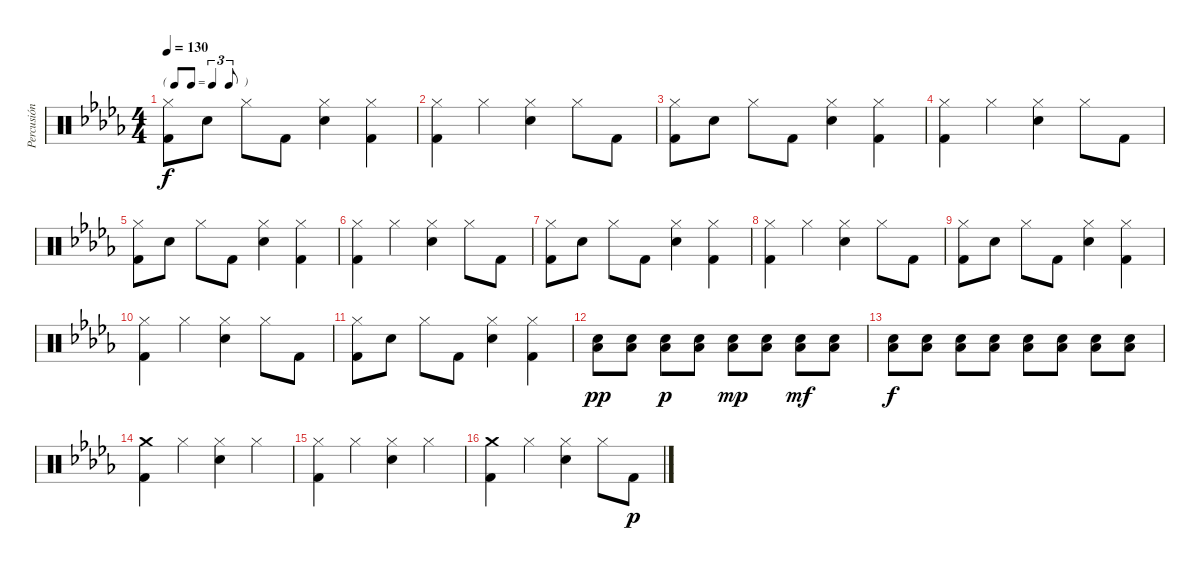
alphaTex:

\track ("Percusión" "Percusión") {instrument percussion}
\staff {score}
\articulation defaults
\ts (4 4)
\tf triplet8th
\tempo 130
\clef neutral
\ks db
("Hi-Hat (closed)" "Kick (hit) 2").8{dy f} "Snare (hit) 2".8 "Hi-Hat (closed)".8 "Kick (hit) 2".8 ("Hi-Hat (closed)" "Snare (hit) 2").4 ("Hi-Hat (closed)" "Kick (hit) 2").4 |
("Hi-Hat (closed)" "Kick (hit) 2").4 "Hi-Hat (closed)".4 ("Hi-Hat (closed)" "Snare (hit) 2").4 "Hi-Hat (closed)".8 "Kick (hit) 2".8 |
("Hi-Hat (closed)" "Kick (hit) 2").8 "Snare (hit) 2".8 "Hi-Hat (closed)".8 "Kick (hit) 2".8 ("Hi-Hat (closed)" "Snare (hit) 2").4 ("Hi-Hat (closed)" "Kick (hit) 2").4 |
("Hi-Hat (closed)" "Kick (hit) 2").4 "Hi-Hat (closed)".4 ("Hi-Hat (closed)" "Snare (hit) 2").4 "Hi-Hat (closed)".8 "Kick (hit) 2".8 |
("Hi-Hat (closed)" "Kick (hit) 2").8 "Snare (hit) 2".8 "Hi-Hat (closed)".8 "Kick (hit) 2".8 ("Hi-Hat (closed)" "Snare (hit) 2").4 ("Hi-Hat (closed)" "Kick (hit) 2").4 |
("Hi-Hat (closed)" "Kick (hit) 2").4 "Hi-Hat (closed)".4 ("Hi-Hat (closed)" "Snare (hit) 2").4 "Hi-Hat (closed)".8 "Kick (hit) 2".8 |
("Hi-Hat (closed)" "Kick (hit) 2").8 "Snare (hit) 2".8 "Hi-Hat (closed)".8 "Kick (hit) 2".8 ("Hi-Hat (closed)" "Snare (hit) 2").4 ("Hi-Hat (closed)" "Kick (hit) 2").4 |
("Hi-Hat (closed)" "Kick (hit) 2").4 "Hi-Hat (closed)".4 ("Hi-Hat (closed)" "Snare (hit) 2").4 "Hi-Hat (closed)".8 "Kick (hit) 2".8 |
("Hi-Hat (closed)" "Kick (hit) 2").8 "Snare (hit) 2".8 "Hi-Hat (closed)".8 "Kick (hit) 2".8 ("Hi-Hat (closed)" "Snare (hit) 2").4 ("Hi-Hat (closed)" "Kick (hit) 2").4 |
("Hi-Hat (closed)" "Kick (hit) 2").4 "Hi-Hat (closed)".4 ("Hi-Hat (closed)" "Snare (hit) 2").4 "Hi-Hat (closed)".8 "Kick (hit) 2".8 |
("Hi-Hat (closed)" "Kick (hit) 2").8 "Snare (hit) 2".8 "Hi-Hat (closed)".8 "Kick (hit) 2".8 ("Hi-Hat (closed)" "Snare (hit) 2").4 ("Hi-Hat (closed)" "Kick (hit) 2").4 |
("Snare (hit) 2" "Low Floor Tom (hit)").8{dy pp} ("Snare (hit) 2" "Low Floor Tom (hit)").8 ("Snare (hit) 2" "Low Floor Tom (hit)").8{dy p} ("Snare (hit) 2" "Low Floor Tom (hit)").8 ("Snare (hit) 2" "Low Floor Tom (hit)").8{dy mp} ("Snare (hit) 2" "Low Floor Tom (hit)").8 ("Snare (hit) 2" "Low Floor Tom (hit)").8{dy mf} ("Snare (hit) 2" "Low Floor Tom (hit)").8 |
("Snare (hit) 2" "Low Floor Tom (hit)").8{dy f} ("Snare (hit) 2" "Low Floor Tom (hit)").8 ("Snare (hit) 2" "Low Floor Tom (hit)").8 ("Snare (hit) 2" "Low Floor Tom (hit)").8 ("Snare (hit) 2" "Low Floor Tom (hit)").8 ("Snare (hit) 2" "Low Floor Tom (hit)").8 ("Snare (hit) 2" "Low Floor Tom (hit)").8 ("Snare (hit) 2" "Low Floor Tom (hit)").8 |
("Crash medium (hit)" "Kick (hit) 2").4 "Hi-Hat (closed)".4 ("Hi-Hat (closed)" "Snare (hit) 2").4 "Hi-Hat (closed)".4 |
("Hi-Hat (closed)" "Kick (hit) 2").4 "Hi-Hat (closed)".4 ("Hi-Hat (closed)" "Snare (hit) 2").4 "Hi-Hat (closed)".4 |
("Crash medium (hit)" "Kick (hit) 2").4 "Hi-Hat (closed)".4 ("Hi-Hat (closed)" "Snare (hit) 2").4 "Hi-Hat (closed)".8 "Kick (hit) 2".8{dy p}
